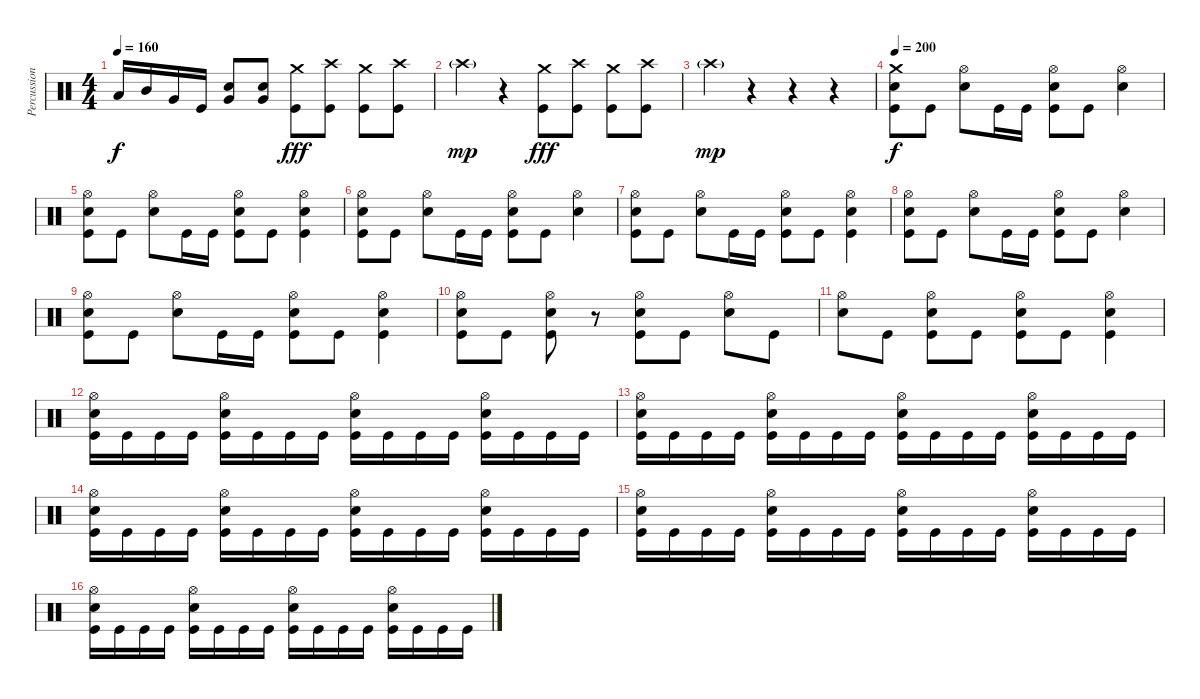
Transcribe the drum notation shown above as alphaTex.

\track ("Percussion" "Percussion") {instrument percussion}
\staff {score}
\articulation defaults
\ts (4 4)
\tempo 160
\clef neutral
\ks c "Low Tom (hit)".16{dy f} "Mid Tom (hit)".16 "Very Low Tom (hit)".16 "Kick (hit)".16
("Snare (hit) 2" "Very Low Tom (hit)").8 ("Snare (hit) 2" "Very Low Tom (hit)").8 ("Crash medium (hit)" "Kick (hit)").8{dy fff} ("Crash high (hit)" "Kick (hit)").8 ("Crash medium (hit)" "Kick (hit)").8 ("Crash high (hit)" "Kick (hit)").8 |
"Crash high (hit)"{g}.4{dy mp} r.4 ("Crash medium (hit)" "Kick (hit)").8{dy fff} ("Crash high (hit)" "Kick (hit)").8 ("Crash medium (hit)" "Kick (hit)").8 ("Crash high (hit)" "Kick (hit)").8 |
"Crash high (hit)"{g}.4{dy mp} r.4 r.4 r.4 |
\tempo 200
("Crash medium (hit)" "Snare (hit) 2" "Kick (hit)").8{dy f} "Kick (hit)".8 ("Hi-Hat (open)" "Snare (hit) 2").8 "Kick (hit)".16 "Kick (hit)".16 ("Hi-Hat (open)" "Snare (hit) 2" "Kick (hit)").8 "Kick (hit)".8 ("Hi-Hat (open)" "Snare (hit) 2").4 |
("Hi-Hat (open)" "Snare (hit) 2" "Kick (hit)").8 "Kick (hit)".8 ("Hi-Hat (open)" "Snare (hit) 2").8 "Kick (hit)".16 "Kick (hit)".16 ("Hi-Hat (open)" "Snare (hit) 2" "Kick (hit)").8 "Kick (hit)".8 ("Hi-Hat (open)" "Snare (hit) 2" "Kick (hit)").4 |
("Hi-Hat (open)" "Snare (hit) 2" "Kick (hit)").8 "Kick (hit)".8 ("Hi-Hat (open)" "Snare (hit) 2").8 "Kick (hit)".16 "Kick (hit)".16 ("Hi-Hat (open)" "Snare (hit) 2" "Kick (hit)").8 "Kick (hit)".8 ("Hi-Hat (open)" "Snare (hit) 2").4 |
("Hi-Hat (open)" "Snare (hit) 2" "Kick (hit)").8 "Kick (hit)".8 ("Hi-Hat (open)" "Snare (hit) 2").8 "Kick (hit)".16 "Kick (hit)".16 ("Hi-Hat (open)" "Snare (hit) 2" "Kick (hit)").8 "Kick (hit)".8 ("Hi-Hat (open)" "Snare (hit) 2" "Kick (hit)").4 |
("Hi-Hat (open)" "Snare (hit) 2" "Kick (hit)").8 "Kick (hit)".8 ("Hi-Hat (open)" "Snare (hit) 2").8 "Kick (hit)".16 "Kick (hit)".16 ("Hi-Hat (open)" "Snare (hit) 2" "Kick (hit)").8 "Kick (hit)".8 ("Hi-Hat (open)" "Snare (hit) 2").4 |
("Hi-Hat (open)" "Snare (hit) 2" "Kick (hit)").8 "Kick (hit)".8 ("Hi-Hat (open)" "Snare (hit) 2").8 "Kick (hit)".16 "Kick (hit)".16 ("Hi-Hat (open)" "Snare (hit) 2" "Kick (hit)").8 "Kick (hit)".8 ("Hi-Hat (open)" "Snare (hit) 2" "Kick (hit)").4 |
("Hi-Hat (open)" "Snare (hit) 2" "Kick (hit)").8 "Kick (hit)".8 ("Hi-Hat (open)" "Snare (hit) 2" "Kick (hit)").8 r.8 ("Hi-Hat (open)" "Snare (hit) 2" "Kick (hit)").8 "Kick (hit)".8 ("Hi-Hat (open)" "Snare (hit) 2").8 "Kick (hit)".8 |
("Hi-Hat (open)" "Snare (hit) 2").8 "Kick (hit)".8 ("Hi-Hat (open)" "Snare (hit) 2" "Kick (hit)").8 "Kick (hit)".8 ("Hi-Hat (open)" "Snare (hit) 2" "Kick (hit)").8 "Kick (hit)".8 ("Hi-Hat (open)" "Snare (hit) 2" "Kick (hit)").4 |
("Hi-Hat (open)" "Snare (hit) 2" "Kick (hit)").16 "Kick (hit)".16 "Kick (hit)".16 "Kick (hit)".16 ("Hi-Hat (open)" "Snare (hit) 2" "Kick (hit)").16 "Kick (hit)".16 "Kick (hit)".16 "Kick (hit)".16 ("Hi-Hat (open)" "Snare (hit) 2" "Kick (hit)").16 "Kick (hit)".16 "Kick (hit)".16 "Kick (hit)".16 ("Hi-Hat (open)" "Snare (hit) 2" "Kick (hit)").16 "Kick (hit)".16 "Kick (hit)".16 "Kick (hit)".16 |
("Hi-Hat (open)" "Snare (hit) 2" "Kick (hit)").16 "Kick (hit)".16 "Kick (hit)".16 "Kick (hit)".16 ("Hi-Hat (open)" "Snare (hit) 2" "Kick (hit)").16 "Kick (hit)".16 "Kick (hit)".16 "Kick (hit)".16 ("Hi-Hat (open)" "Snare (hit) 2" "Kick (hit)").16 "Kick (hit)".16 "Kick (hit)".16 "Kick (hit)".16 ("Hi-Hat (open)" "Snare (hit) 2" "Kick (hit)").16 "Kick (hit)".16 "Kick (hit)".16 "Kick (hit)".16 |
("Hi-Hat (open)" "Snare (hit) 2" "Kick (hit)").16 "Kick (hit)".16 "Kick (hit)".16 "Kick (hit)".16 ("Hi-Hat (open)" "Snare (hit) 2" "Kick (hit)").16 "Kick (hit)".16 "Kick (hit)".16 "Kick (hit)".16 ("Hi-Hat (open)" "Snare (hit) 2" "Kick (hit)").16 "Kick (hit)".16 "Kick (hit)".16 "Kick (hit)".16 ("Hi-Hat (open)" "Snare (hit) 2" "Kick (hit)").16 "Kick (hit)".16 "Kick (hit)".16 "Kick (hit)".16 |
("Hi-Hat (open)" "Snare (hit) 2" "Kick (hit)").16 "Kick (hit)".16 "Kick (hit)".16 "Kick (hit)".16 ("Hi-Hat (open)" "Snare (hit) 2" "Kick (hit)").16 "Kick (hit)".16 "Kick (hit)".16 "Kick (hit)".16 ("Hi-Hat (open)" "Snare (hit) 2" "Kick (hit)").16 "Kick (hit)".16 "Kick (hit)".16 "Kick (hit)".16 ("Hi-Hat (open)" "Snare (hit) 2" "Kick (hit)").16 "Kick (hit)".16 "Kick (hit)".16 "Kick (hit)".16 |
("Hi-Hat (open)" "Snare (hit) 2" "Kick (hit)").16 "Kick (hit)".16 "Kick (hit)".16 "Kick (hit)".16 ("Hi-Hat (open)" "Snare (hit) 2" "Kick (hit)").16 "Kick (hit)".16 "Kick (hit)".16 "Kick (hit)".16 ("Hi-Hat (open)" "Snare (hit) 2" "Kick (hit)").16 "Kick (hit)".16 "Kick (hit)".16 "Kick (hit)".16 ("Hi-Hat (open)" "Snare (hit) 2" "Kick (hit)").16 "Kick (hit)".16 "Kick (hit)".16 "Kick (hit)".16
